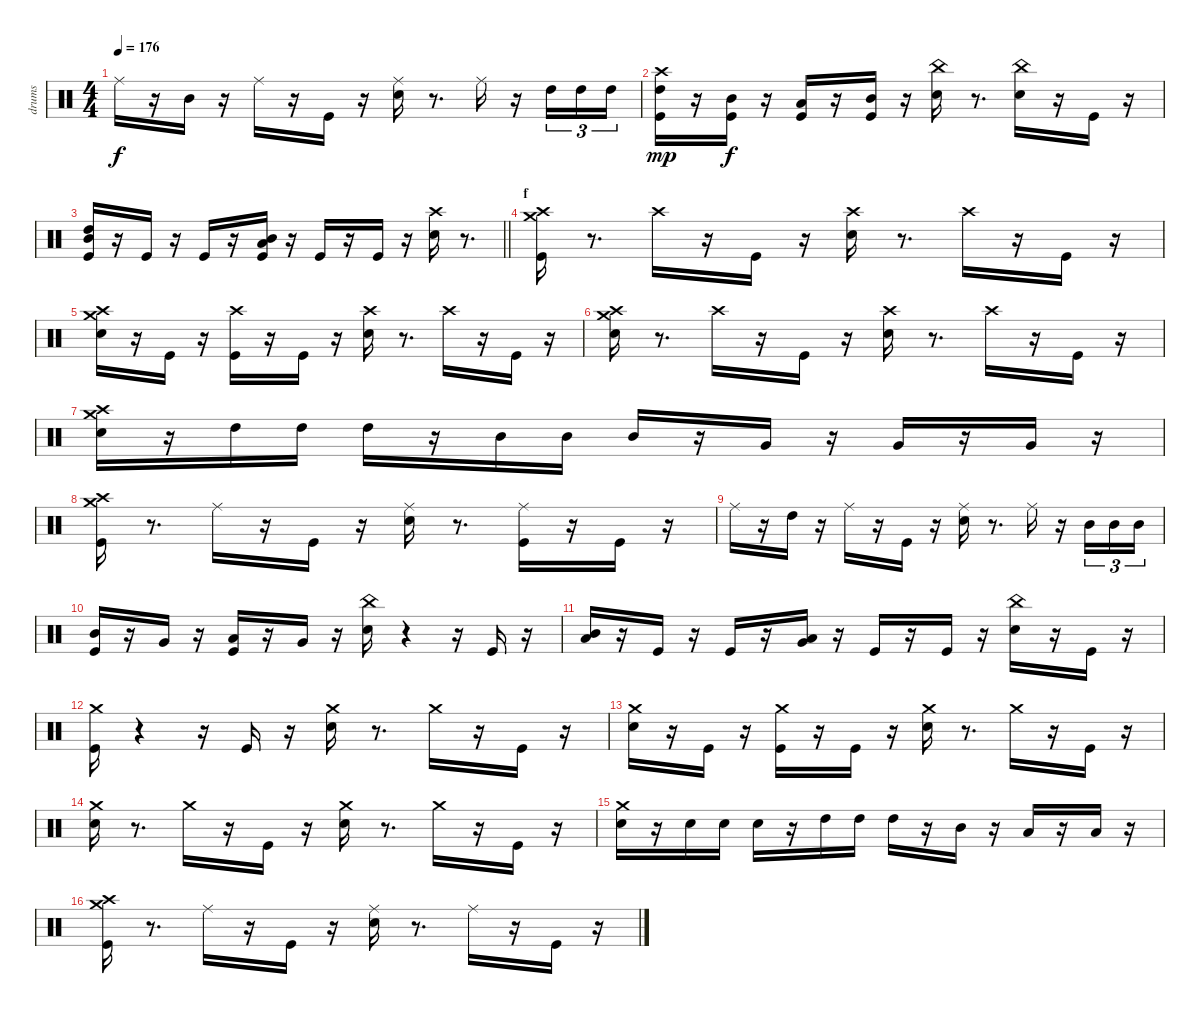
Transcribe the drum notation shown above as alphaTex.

\track ("drums" "drums") {instrument percussion}
\staff {score}
\articulation defaults
\ts (4 4)
\tempo 176
\clef neutral
\ks c "Ride (middle)".16{dy f}
r.16 "Mid Tom (hit)".16 r.16 "Ride (middle)".16 r.16 "Kick (hit)".16 r.16 ("Snare (hit) 2" "Ride (middle)").16 r.8{d} "Ride (middle)".16 r.16 "High Tom (hit)".16{tu (3 2)} "High Tom (hit)".16{tu (3 2)} "High Tom (hit)".16{tu (3 2)} |
("Kick (hit)" "High Tom (hit)" "Crash high (hit)").16{dy mp} r.16 ("Kick (hit)" "Mid Tom (hit)").16{dy f} r.16 ("Kick (hit)" "Low Tom (hit)").16 r.16 ("Kick (hit)" "Mid Tom (hit)").16 r.16 ("Snare (hit) 2" "China (hit)").16 r.8{d} ("Snare (hit) 2" "China (hit)").16 r.16 "Kick (hit)".16 r.16 |
\barLineRight lightlight
("Kick (hit)" "Mid Tom (hit)" "High Tom (hit)").16 r.16 "Kick (hit)".16 r.16 "Kick (hit)".16 r.16 ("Kick (hit)" "Low Tom (hit)" "Mid Tom (hit)").16 r.16 "Kick (hit)".16 r.16 "Kick (hit)".16 r.16 ("Snare (hit) 2" "Crash high (hit)").16 r.8{d} |
\section ("" "f")
("Kick (hit)" "Crash high (hit)" "Crash medium (hit)").16 r.8{d} "Crash high (hit)".16 r.16 "Kick (hit)".16 r.16 ("Snare (hit) 2" "Crash high (hit)").16 r.8{d} "Crash high (hit)".16 r.16 "Kick (hit)".16 r.16 |
("Snare (hit) 2" "Crash high (hit)" "Crash medium (hit)").16 r.16 "Kick (hit)".16 r.16 ("Kick (hit)" "Crash high (hit)").16 r.16 "Kick (hit)".16 r.16 ("Snare (hit) 2" "Crash high (hit)").16 r.8{d} "Crash high (hit)".16 r.16 "Kick (hit)".16 r.16 |
("Snare (hit) 2" "Crash high (hit)" "Crash medium (hit)").16 r.8{d} "Crash high (hit)".16 r.16 "Kick (hit)".16 r.16 ("Snare (hit) 2" "Crash high (hit)").16 r.8{d} "Crash high (hit)".16 r.16 "Kick (hit)".16 r.16 |
("Snare (hit) 2" "Crash high (hit)" "Crash medium (hit)").16 r.16 "High Tom (hit)".16 "High Tom (hit)".16 "High Tom (hit)".16 r.16 "Mid Tom (hit)".16 "Mid Tom (hit)".16 "Mid Tom (hit)".16 r.16 "Very Low Tom (hit)".16 r.16 "Very Low Tom (hit)".16 r.16 "Very Low Tom (hit)".16 r.16 |
("Kick (hit)" "Crash high (hit)" "Crash medium (hit)").16 r.8{d} "Ride (middle)".16 r.16 "Kick (hit)".16 r.16 ("Snare (hit) 2" "Ride (middle)").16 r.8{d} ("Kick (hit)" "Ride (middle)").16 r.16 "Kick (hit)".16 r.16 |
"Ride (middle)".16 r.16 "High Tom (hit)".16 r.16 "Ride (middle)".16 r.16 "Kick (hit)".16 r.16 ("Snare (hit) 2" "Ride (middle)").16 r.8{d} "Ride (middle)".16 r.16 "Mid Tom (hit)".16{tu (3 2)} "Mid Tom (hit)".16{tu (3 2)} "Mid Tom (hit)".16{tu (3 2)} |
("Kick (hit)" "Mid Tom (hit)").16 r.16 "Very Low Tom (hit)".16 r.16 ("Kick (hit)" "Low Tom (hit)").16 r.16 "Very Low Tom (hit)".16 r.16 ("Snare (hit) 2" "China (hit)").16 r.4 r.16 "Kick (hit)".16 r.16 |
("Low Tom (hit)" "Mid Tom (hit)").16 r.16 "Kick (hit)".16 r.16 "Kick (hit)".16 r.16 ("Very Low Tom (hit)" "Low Tom (hit)").16 r.16 "Kick (hit)".16 r.16 "Kick (hit)".16 r.16 ("Snare (hit) 2" "China (hit)").16 r.16 "Kick (hit)".16 r.16 |
("Kick (hit)" "Crash medium (hit)").16 r.4 r.16 "Kick (hit)".16 r.16 ("Snare (hit) 2" "Crash medium (hit)").16 r.8{d} "Crash medium (hit)".16 r.16 "Kick (hit)".16 r.16 |
("Snare (hit) 2" "Crash medium (hit)").16 r.16 "Kick (hit)".16 r.16 ("Kick (hit)" "Crash medium (hit)").16 r.16 "Kick (hit)".16 r.16 ("Snare (hit) 2" "Crash medium (hit)").16 r.8{d} "Crash medium (hit)".16 r.16 "Kick (hit)".16 r.16 |
("Snare (hit) 2" "Crash medium (hit)").16 r.8{d} "Crash medium (hit)".16 r.16 "Kick (hit)".16 r.16 ("Snare (hit) 2" "Crash medium (hit)").16 r.8{d} "Crash medium (hit)".16 r.16 "Kick (hit)".16 r.16 |
("Snare (hit) 2" "Crash medium (hit)").16 r.16 "Snare (hit) 2".16 "Snare (hit) 2".16 "Snare (hit) 2".16 r.16 "High Tom (hit)".16 "High Tom (hit)".16 "High Tom (hit)".16 r.16 "Mid Tom (hit)".16 r.16 "Low Tom (hit)".16 r.16 "Low Tom (hit)".16 r.16 |
("Kick (hit)" "Crash high (hit)" "Crash medium (hit)").16 r.8{d} "Ride (middle)".16 r.16 "Kick (hit)".16 r.16 ("Snare (hit) 2" "Ride (middle)").16 r.8{d} "Ride (middle)".16 r.16 "Kick (hit)".16 r.16
